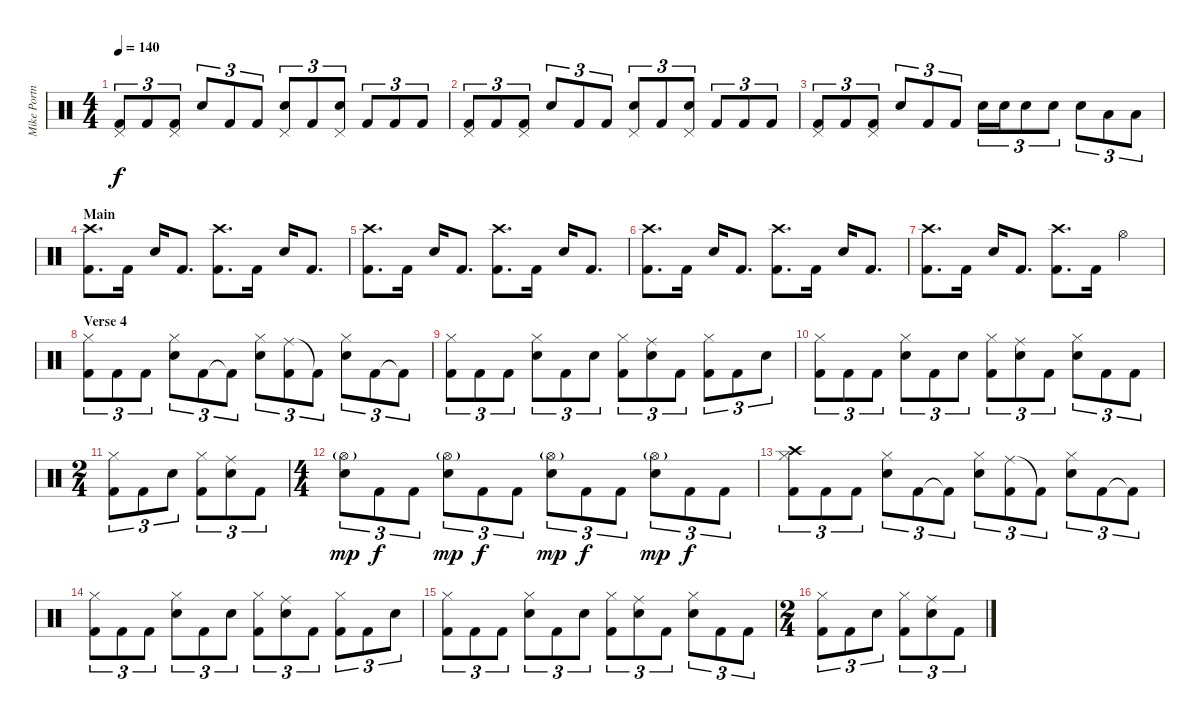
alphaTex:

\track ("Mike Portnoy Drums/Percussion" "Mike Portn") {instrument percussion}
\staff {score}
\articulation defaults
\ts (4 4)
\tempo 140
\clef neutral
\ks c
("Kick (hit) 2" "Pedal Hi-Hat (hit)").8{tu (3 2) dy f} "Kick (hit) 2".8{tu (3 2)} ("Kick (hit) 2" "Pedal Hi-Hat (hit)").8{tu (3 2)} "Snare (hit) 2".8{tu (3 2)} "Kick (hit) 2".8{tu (3 2)} "Kick (hit) 2".8{tu (3 2)} ("Snare (hit) 2" "Pedal Hi-Hat (hit)").8{tu (3 2)} "Kick (hit) 2".8{tu (3 2)} ("Snare (hit) 2" "Pedal Hi-Hat (hit)").8{tu (3 2)} "Kick (hit) 2".8{tu (3 2)} "Kick (hit) 2".8{tu (3 2)} "Kick (hit) 2".8{tu (3 2)} |
("Kick (hit) 2" "Pedal Hi-Hat (hit)").8{tu (3 2)} "Kick (hit) 2".8{tu (3 2)} ("Kick (hit) 2" "Pedal Hi-Hat (hit)").8{tu (3 2)} "Snare (hit) 2".8{tu (3 2)} "Kick (hit) 2".8{tu (3 2)} "Kick (hit) 2".8{tu (3 2)} ("Snare (hit) 2" "Pedal Hi-Hat (hit)").8{tu (3 2)} "Kick (hit) 2".8{tu (3 2)} ("Snare (hit) 2" "Pedal Hi-Hat (hit)").8{tu (3 2)} "Kick (hit) 2".8{tu (3 2)} "Kick (hit) 2".8{tu (3 2)} "Kick (hit) 2".8{tu (3 2)} |
("Kick (hit) 2" "Pedal Hi-Hat (hit)").8{tu (3 2)} "Kick (hit) 2".8{tu (3 2)} ("Kick (hit) 2" "Pedal Hi-Hat (hit)").8{tu (3 2)} "Snare (hit) 2".8{tu (3 2)} "Kick (hit) 2".8{tu (3 2)} "Kick (hit) 2".8{tu (3 2)} "Snare (hit) 2".16{tu (3 2)} "Snare (hit) 2".16{tu (3 2)} "Snare (hit) 2".8{tu (3 2)} "Snare (hit) 2".8{tu (3 2)} "Snare (hit) 2".8{tu (3 2)} "Low Tom (hit)".8{tu (3 2)} "Low Floor Tom (hit)".8{tu (3 2)} |
\section ("" "Main")
("Crash high (hit)" "Kick (hit) 2").8{d} "Kick (hit) 2".16 "Snare (hit) 2".16 "Kick (hit) 2".8{d} ("Crash high (hit)" "Kick (hit) 2").8{d} "Kick (hit) 2".16 "Snare (hit) 2".16 "Kick (hit) 2".8{d} |
("Crash high (hit)" "Kick (hit) 2").8{d} "Kick (hit) 2".16 "Snare (hit) 2".16 "Kick (hit) 2".8{d} ("Crash high (hit)" "Kick (hit) 2").8{d} "Kick (hit) 2".16 "Snare (hit) 2".16 "Kick (hit) 2".8{d} |
("Crash high (hit)" "Kick (hit) 2").8{d} "Kick (hit) 2".16 "Snare (hit) 2".16 "Kick (hit) 2".8{d} ("Crash high (hit)" "Kick (hit) 2").8{d} "Kick (hit) 2".16 "Snare (hit) 2".16 "Kick (hit) 2".8{d} |
("Crash high (hit)" "Kick (hit) 2").8{d} "Kick (hit) 2".16 "Snare (hit) 2".16 "Kick (hit) 2".8{d} ("Crash high (hit)" "Kick (hit) 2").8{d} "Kick (hit) 2".16 "Hi-Hat (open)".4 |
\section ("" "Verse 4")
("Hi-Hat (closed)" "Kick (hit) 2").8{tu (3 2)} "Kick (hit) 2".8{tu (3 2)} "Kick (hit) 2".8{tu (3 2)} ("Hi-Hat (closed)" "Snare (hit) 2").8{tu (3 2)} "Kick (hit) 2".8{tu (3 2)} "Kick (hit) 2"{t}.8{tu (3 2)} ("Hi-Hat (closed)" "Snare (hit) 2").8{tu (3 2)} ("Ride (middle)" "Kick (hit) 2").8{tu (3 2)} "Kick (hit) 2"{t}.8{tu (3 2)} ("Hi-Hat (closed)" "Snare (hit) 2").8{tu (3 2)} "Kick (hit) 2".8{tu (3 2)} "Kick (hit) 2"{t}.8{tu (3 2)} |
("Hi-Hat (closed)" "Kick (hit) 2").8{tu (3 2)} "Kick (hit) 2".8{tu (3 2)} "Kick (hit) 2".8{tu (3 2)} ("Hi-Hat (closed)" "Snare (hit) 2").8{tu (3 2)} "Kick (hit) 2".8{tu (3 2)} "Snare (hit) 2".8{tu (3 2)} ("Hi-Hat (closed)" "Kick (hit) 2").8{tu (3 2)} ("Ride (middle)" "Snare (hit) 2").8{tu (3 2)} "Kick (hit) 2".8{tu (3 2)} ("Hi-Hat (closed)" "Kick (hit) 2").8{tu (3 2)} "Kick (hit) 2".8{tu (3 2)} "Snare (hit) 2".8{tu (3 2)} |
("Hi-Hat (closed)" "Kick (hit) 2").8{tu (3 2)} "Kick (hit) 2".8{tu (3 2)} "Kick (hit) 2".8{tu (3 2)} ("Hi-Hat (closed)" "Snare (hit) 2").8{tu (3 2)} "Kick (hit) 2".8{tu (3 2)} "Snare (hit) 2".8{tu (3 2)} ("Hi-Hat (closed)" "Kick (hit) 2").8{tu (3 2)} ("Ride (middle)" "Snare (hit) 2").8{tu (3 2)} "Kick (hit) 2".8{tu (3 2)} ("Hi-Hat (closed)" "Snare (hit) 2").8{tu (3 2)} "Kick (hit) 2".8{tu (3 2)} "Kick (hit) 2".8{tu (3 2)} |
\ts (2 4)
("Hi-Hat (closed)" "Kick (hit) 2").8{tu (3 2)} "Kick (hit) 2".8{tu (3 2)} "Snare (hit) 2".8{tu (3 2)} ("Hi-Hat (closed)" "Kick (hit) 2").8{tu (3 2)} ("Ride (middle)" "Snare (hit) 2").8{tu (3 2)} "Kick (hit) 2".8{tu (3 2)} |
\ts (4 4)
("Hi-Hat (open)"{g} "Snare (hit) 2").8{tu (3 2) dy mp} "Kick (hit) 2".8{tu (3 2) dy f} "Kick (hit) 2".8{tu (3 2)} ("Hi-Hat (open)"{g} "Snare (hit) 2").8{tu (3 2) dy mp} "Kick (hit) 2".8{tu (3 2) dy f} "Kick (hit) 2".8{tu (3 2)} ("Hi-Hat (open)"{g} "Snare (hit) 2").8{tu (3 2) dy mp} "Kick (hit) 2".8{tu (3 2) dy f} "Kick (hit) 2".8{tu (3 2)} ("Hi-Hat (open)"{g} "Snare (hit) 2").8{tu (3 2) dy mp} "Kick (hit) 2".8{tu (3 2) dy f} "Kick (hit) 2".8{tu (3 2)} |
("Hi-Hat (closed)" "Crash high (hit)" "Kick (hit) 2").8{tu (3 2)} "Kick (hit) 2".8{tu (3 2)} "Kick (hit) 2".8{tu (3 2)} ("Hi-Hat (closed)" "Snare (hit) 2").8{tu (3 2)} "Kick (hit) 2".8{tu (3 2)} "Kick (hit) 2"{t}.8{tu (3 2)} ("Hi-Hat (closed)" "Snare (hit) 2").8{tu (3 2)} ("Ride (middle)" "Kick (hit) 2").8{tu (3 2)} "Kick (hit) 2"{t}.8{tu (3 2)} ("Hi-Hat (closed)" "Snare (hit) 2").8{tu (3 2)} "Kick (hit) 2".8{tu (3 2)} "Kick (hit) 2"{t}.8{tu (3 2)} |
("Hi-Hat (closed)" "Kick (hit) 2").8{tu (3 2)} "Kick (hit) 2".8{tu (3 2)} "Kick (hit) 2".8{tu (3 2)} ("Hi-Hat (closed)" "Snare (hit) 2").8{tu (3 2)} "Kick (hit) 2".8{tu (3 2)} "Snare (hit) 2".8{tu (3 2)} ("Hi-Hat (closed)" "Kick (hit) 2").8{tu (3 2)} ("Ride (middle)" "Snare (hit) 2").8{tu (3 2)} "Kick (hit) 2".8{tu (3 2)} ("Hi-Hat (closed)" "Kick (hit) 2").8{tu (3 2)} "Kick (hit) 2".8{tu (3 2)} "Snare (hit) 2".8{tu (3 2)} |
("Hi-Hat (closed)" "Kick (hit) 2").8{tu (3 2)} "Kick (hit) 2".8{tu (3 2)} "Kick (hit) 2".8{tu (3 2)} ("Hi-Hat (closed)" "Snare (hit) 2").8{tu (3 2)} "Kick (hit) 2".8{tu (3 2)} "Snare (hit) 2".8{tu (3 2)} ("Hi-Hat (closed)" "Kick (hit) 2").8{tu (3 2)} ("Ride (middle)" "Snare (hit) 2").8{tu (3 2)} "Kick (hit) 2".8{tu (3 2)} ("Hi-Hat (closed)" "Snare (hit) 2").8{tu (3 2)} "Kick (hit) 2".8{tu (3 2)} "Kick (hit) 2".8{tu (3 2)} |
\ts (2 4)
("Hi-Hat (closed)" "Kick (hit) 2").8{tu (3 2)} "Kick (hit) 2".8{tu (3 2)} "Snare (hit) 2".8{tu (3 2)} ("Hi-Hat (closed)" "Kick (hit) 2").8{tu (3 2)} ("Ride (middle)" "Snare (hit) 2").8{tu (3 2)} "Kick (hit) 2".8{tu (3 2)}
